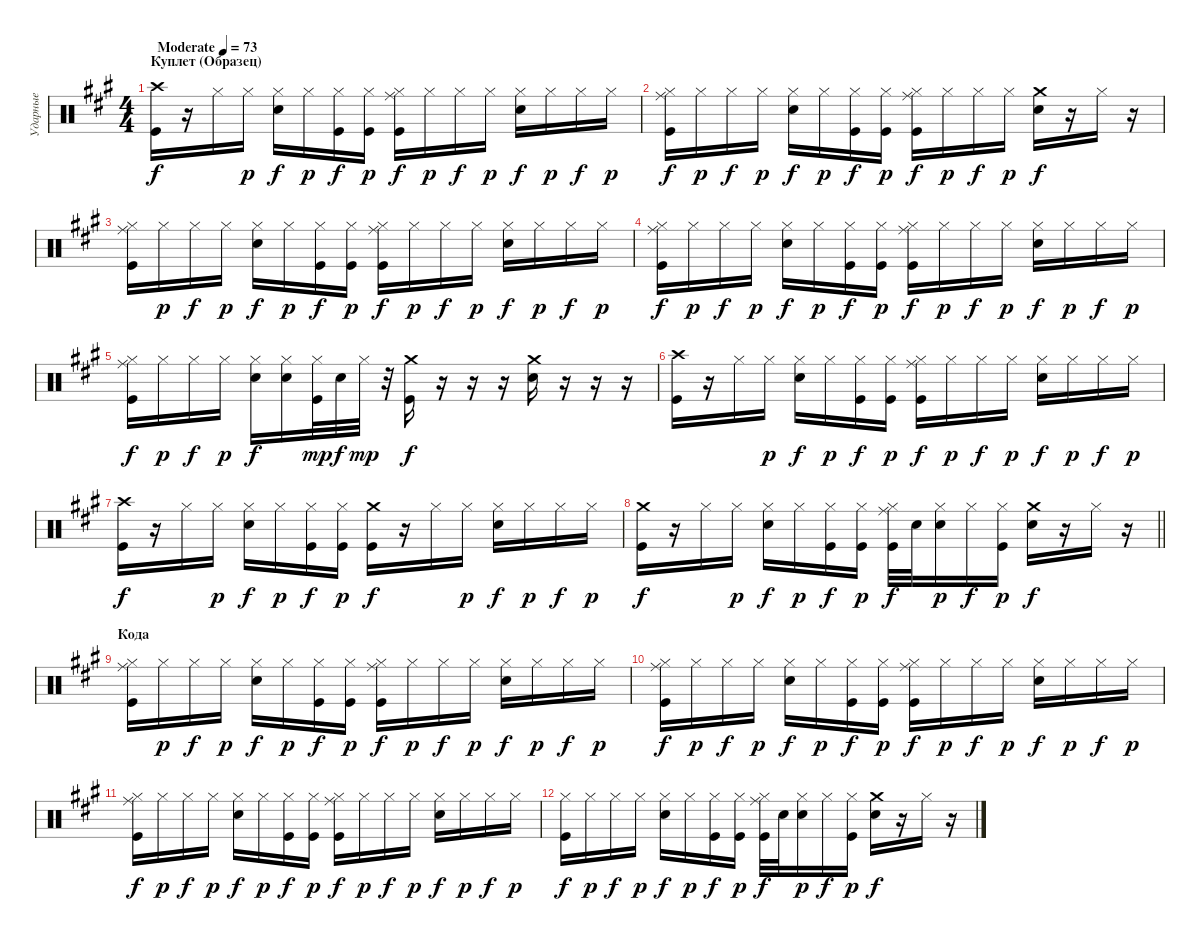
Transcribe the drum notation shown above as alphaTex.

\track ("Ударные" "Ударные") {instrument percussion}
\staff {score}
\articulation defaults
\ts (4 4)
\section ("" "Куплет (Образец)")
\tempo (73 "Moderate")
\clef neutral
\ks a
("Crash high (hit)" "Kick (hit)").16{dy f} r.16 "Hi-Hat (closed)".16 "Hi-Hat (closed)".16{dy p} ("Hi-Hat (closed)" "Snare (hit) 2").16{dy f} "Hi-Hat (closed)".16{dy p} ("Hi-Hat (closed)" "Kick (hit)").16{dy f} ("Hi-Hat (closed)" "Kick (hit)").16{dy p} ("Hi-Hat (closed)" "Ride (middle)" "Kick (hit)").16{dy f} "Hi-Hat (closed)".16{dy p} "Hi-Hat (closed)".16{dy f} "Hi-Hat (closed)".16{dy p} ("Hi-Hat (closed)" "Snare (hit) 2").16{dy f} "Hi-Hat (closed)".16{dy p} "Hi-Hat (closed)".16{dy f} "Hi-Hat (closed)".16{dy p} |
("Hi-Hat (closed)" "Ride (middle)" "Kick (hit)").16{dy f} "Hi-Hat (closed)".16{dy p} "Hi-Hat (closed)".16{dy f} "Hi-Hat (closed)".16{dy p} ("Hi-Hat (closed)" "Snare (hit) 2").16{dy f} "Hi-Hat (closed)".16{dy p} ("Hi-Hat (closed)" "Kick (hit)").16{dy f} ("Hi-Hat (closed)" "Kick (hit)").16{dy p} ("Hi-Hat (closed)" "Ride (middle)" "Kick (hit)").16{dy f} "Hi-Hat (closed)".16{dy p} "Hi-Hat (closed)".16{dy f} "Hi-Hat (closed)".16{dy p} ("Crash medium (hit)" "Snare (hit) 2").16{dy f} r.16 "Hi-Hat (closed)".16 r.16 |
("Hi-Hat (closed)" "Ride (middle)" "Kick (hit)").16 "Hi-Hat (closed)".16{dy p} "Hi-Hat (closed)".16{dy f} "Hi-Hat (closed)".16{dy p} ("Hi-Hat (closed)" "Snare (hit) 2").16{dy f} "Hi-Hat (closed)".16{dy p} ("Hi-Hat (closed)" "Kick (hit)").16{dy f} ("Hi-Hat (closed)" "Kick (hit)").16{dy p} ("Hi-Hat (closed)" "Ride (middle)" "Kick (hit)").16{dy f} "Hi-Hat (closed)".16{dy p} "Hi-Hat (closed)".16{dy f} "Hi-Hat (closed)".16{dy p} ("Hi-Hat (closed)" "Snare (hit) 2").16{dy f} "Hi-Hat (closed)".16{dy p} "Hi-Hat (closed)".16{dy f} "Hi-Hat (closed)".16{dy p} |
("Hi-Hat (closed)" "Ride (middle)" "Kick (hit)").16{dy f} "Hi-Hat (closed)".16{dy p} "Hi-Hat (closed)".16{dy f} "Hi-Hat (closed)".16{dy p} ("Hi-Hat (closed)" "Snare (hit) 2").16{dy f} "Hi-Hat (closed)".16{dy p} ("Hi-Hat (closed)" "Kick (hit)").16{dy f} ("Hi-Hat (closed)" "Kick (hit)").16{dy p} ("Hi-Hat (closed)" "Ride (middle)" "Kick (hit)").16{dy f} "Hi-Hat (closed)".16{dy p} "Hi-Hat (closed)".16{dy f} "Hi-Hat (closed)".16{dy p} ("Hi-Hat (closed)" "Snare (hit) 2").16{dy f} "Hi-Hat (closed)".16{dy p} "Hi-Hat (closed)".16{dy f} "Hi-Hat (closed)".16{dy p} |
("Hi-Hat (closed)" "Ride (middle)" "Kick (hit)").16{dy f} "Hi-Hat (closed)".16{dy p} "Hi-Hat (closed)".16{dy f} "Hi-Hat (closed)".16{dy p} ("Hi-Hat (closed)" "Snare (hit) 2").16{dy f} ("Hi-Hat (closed)" "Snare (hit) 2").16 ("Hi-Hat (closed)" "Kick (hit)").32{dy mp} "Snare (hit) 2".32{dy f} "Hi-Hat (closed)".32{dy mp} r.32 ("Crash medium (hit)" "Kick (hit)").16{dy f} r.16 r.16 r.16 ("Crash medium (hit)" "Snare (hit) 2").16 r.16 r.16 r.16 |
("Crash high (hit)" "Kick (hit)").16 r.16 "Hi-Hat (closed)".16 "Hi-Hat (closed)".16{dy p} ("Hi-Hat (closed)" "Snare (hit) 2").16{dy f} "Hi-Hat (closed)".16{dy p} ("Hi-Hat (closed)" "Kick (hit)").16{dy f} ("Hi-Hat (closed)" "Kick (hit)").16{dy p} ("Hi-Hat (closed)" "Ride (middle)" "Kick (hit)").16{dy f} "Hi-Hat (closed)".16{dy p} "Hi-Hat (closed)".16{dy f} "Hi-Hat (closed)".16{dy p} ("Hi-Hat (closed)" "Snare (hit) 2").16{dy f} "Hi-Hat (closed)".16{dy p} "Hi-Hat (closed)".16{dy f} "Hi-Hat (closed)".16{dy p} |
("Crash high (hit)" "Kick (hit)").16{dy f} r.16 "Hi-Hat (closed)".16 "Hi-Hat (closed)".16{dy p} ("Hi-Hat (closed)" "Snare (hit) 2").16{dy f} "Hi-Hat (closed)".16{dy p} ("Hi-Hat (closed)" "Kick (hit)").16{dy f} ("Hi-Hat (closed)" "Kick (hit)").16{dy p} ("Crash medium (hit)" "Kick (hit)").16{dy f} r.16 "Hi-Hat (closed)".16 "Hi-Hat (closed)".16{dy p} ("Hi-Hat (closed)" "Snare (hit) 2").16{dy f} "Hi-Hat (closed)".16{dy p} "Hi-Hat (closed)".16{dy f} "Hi-Hat (closed)".16{dy p} |
\barLineRight lightlight
("Crash medium (hit)" "Kick (hit)").16{dy f} r.16 "Hi-Hat (closed)".16 "Hi-Hat (closed)".16{dy p} ("Hi-Hat (closed)" "Snare (hit) 2").16{dy f} "Hi-Hat (closed)".16{dy p} ("Hi-Hat (closed)" "Kick (hit)").16{dy f} ("Hi-Hat (closed)" "Kick (hit)").16{dy p} ("Hi-Hat (closed)" "Ride (middle)" "Kick (hit)").32{dy f} "Snare (hit) 2".32 ("Hi-Hat (closed)" "Snare (hit) 2").16{dy p} "Hi-Hat (closed)".16{dy f} ("Hi-Hat (closed)" "Kick (hit)").16{dy p} ("Crash medium (hit)" "Snare (hit) 2").16{dy f} r.16 "Hi-Hat (closed)".16 r.16 |
\section ("" "Кода")
("Hi-Hat (closed)" "Ride (middle)" "Kick (hit)").16 "Hi-Hat (closed)".16{dy p} "Hi-Hat (closed)".16{dy f} "Hi-Hat (closed)".16{dy p} ("Hi-Hat (closed)" "Snare (hit) 2").16{dy f} "Hi-Hat (closed)".16{dy p} ("Hi-Hat (closed)" "Kick (hit)").16{dy f} ("Hi-Hat (closed)" "Kick (hit)").16{dy p} ("Hi-Hat (closed)" "Ride (middle)" "Kick (hit)").16{dy f} "Hi-Hat (closed)".16{dy p} "Hi-Hat (closed)".16{dy f} "Hi-Hat (closed)".16{dy p} ("Hi-Hat (closed)" "Snare (hit) 2").16{dy f} "Hi-Hat (closed)".16{dy p} "Hi-Hat (closed)".16{dy f} "Hi-Hat (closed)".16{dy p} |
("Hi-Hat (closed)" "Ride (middle)" "Kick (hit)").16{dy f} "Hi-Hat (closed)".16{dy p} "Hi-Hat (closed)".16{dy f} "Hi-Hat (closed)".16{dy p} ("Hi-Hat (closed)" "Snare (hit) 2").16{dy f} "Hi-Hat (closed)".16{dy p} ("Hi-Hat (closed)" "Kick (hit)").16{dy f} ("Hi-Hat (closed)" "Kick (hit)").16{dy p} ("Hi-Hat (closed)" "Ride (middle)" "Kick (hit)").16{dy f} "Hi-Hat (closed)".16{dy p} "Hi-Hat (closed)".16{dy f} "Hi-Hat (closed)".16{dy p} ("Hi-Hat (closed)" "Snare (hit) 2").16{dy f} "Hi-Hat (closed)".16{dy p} "Hi-Hat (closed)".16{dy f} "Hi-Hat (closed)".16{dy p} |
("Hi-Hat (closed)" "Ride (middle)" "Kick (hit)").16{dy f} "Hi-Hat (closed)".16{dy p} "Hi-Hat (closed)".16{dy f} "Hi-Hat (closed)".16{dy p} ("Hi-Hat (closed)" "Snare (hit) 2").16{dy f} "Hi-Hat (closed)".16{dy p} ("Hi-Hat (closed)" "Kick (hit)").16{dy f} ("Hi-Hat (closed)" "Kick (hit)").16{dy p} ("Hi-Hat (closed)" "Ride (middle)" "Kick (hit)").16{dy f} "Hi-Hat (closed)".16{dy p} "Hi-Hat (closed)".16{dy f} "Hi-Hat (closed)".16{dy p} ("Hi-Hat (closed)" "Snare (hit) 2").16{dy f} "Hi-Hat (closed)".16{dy p} "Hi-Hat (closed)".16{dy f} "Hi-Hat (closed)".16{dy p} |
("Hi-Hat (closed)" "Kick (hit)").16{dy f} "Hi-Hat (closed)".16{dy p} "Hi-Hat (closed)".16{dy f} "Hi-Hat (closed)".16{dy p} ("Hi-Hat (closed)" "Snare (hit) 2").16{dy f} "Hi-Hat (closed)".16{dy p} ("Hi-Hat (closed)" "Kick (hit)").16{dy f} ("Hi-Hat (closed)" "Kick (hit)").16{dy p} ("Hi-Hat (closed)" "Ride (middle)" "Kick (hit)").32{dy f} "Snare (hit) 2".32 ("Hi-Hat (closed)" "Snare (hit) 2").16{dy p} "Hi-Hat (closed)".16{dy f} ("Hi-Hat (closed)" "Kick (hit)").16{dy p} ("Crash medium (hit)" "Snare (hit) 2").16{dy f} r.16 "Hi-Hat (closed)".16 r.16
